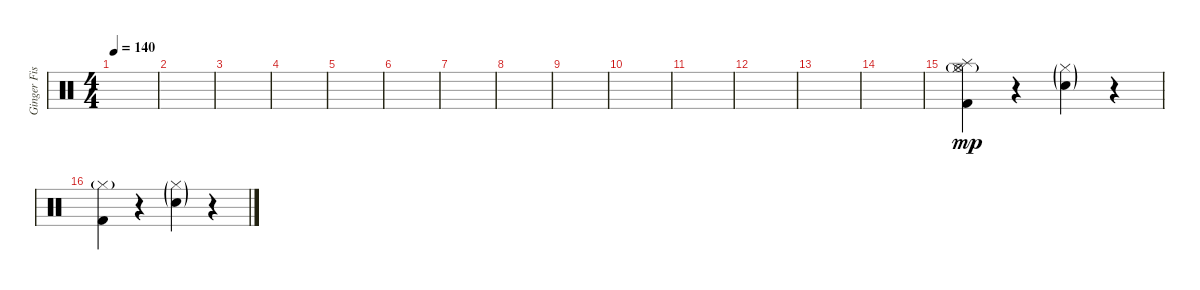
\track ("Ginger Fish" "Ginger Fis") {instrument percussion}
\staff {score}
\articulation defaults
\ts (4 4)
\tempo 140
\clef neutral
\ks c
|
|
|
|
|
|
|
|
|
|
|
|
|
|
("Hi-Hat (closed)"{g} "Hi-Hat (open)"{g} "Splash (hit)" "Kick (hit) 2").4{dy mp} r.4 ("Hi-Hat (closed)"{g} "Electric Snare (hit)"{g}).4 r.4 |
("Hi-Hat (closed)"{g} "Kick (hit) 2").4 r.4 ("Hi-Hat (closed)"{g} "Electric Snare (hit)"{g}).4 r.4
